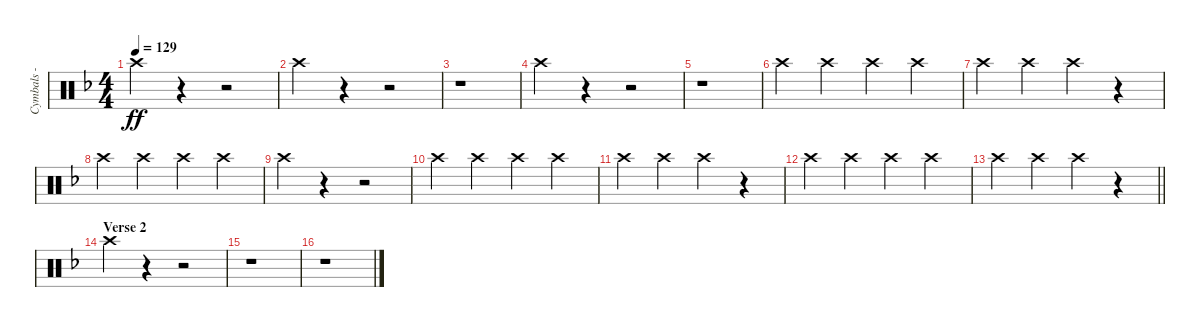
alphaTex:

\track ("Cymbals - crash" "Cymbals - ") {instrument percussion}
\staff {score}
\articulation defaults
\ts (4 4)
\tempo 129
\clef neutral
\ks dminor "Crash high (hit)".4{dy ff}
r.4 r.2 |
"Crash high (hit)".4 r.4 r.2 |
r.1 |
"Crash high (hit)".4 r.4 r.2 |
r.1 |
"Crash high (hit)".4{balance 6} "Crash high (hit)".4 "Crash high (hit)".4 "Crash high (hit)".4 |
"Crash high (hit)".4 "Crash high (hit)".4 "Crash high (hit)".4 r.4 |
"Crash high (hit)".4 "Crash high (hit)".4 "Crash high (hit)".4 "Crash high (hit)".4 |
"Crash high (hit)".4 r.4 r.2 |
"Crash high (hit)".4 "Crash high (hit)".4 "Crash high (hit)".4 "Crash high (hit)".4 |
"Crash high (hit)".4 "Crash high (hit)".4 "Crash high (hit)".4{beam merge} r.4 |
"Crash high (hit)".4 "Crash high (hit)".4 "Crash high (hit)".4 "Crash high (hit)".4 |
\barLineRight lightlight "Crash high (hit)".4 "Crash high (hit)".4 "Crash high (hit)".4
r.4 |
\section ("" "Verse 2")
"Crash high (hit)".4{balance 10} r.4 r.2 |
r.1 |
r.1
